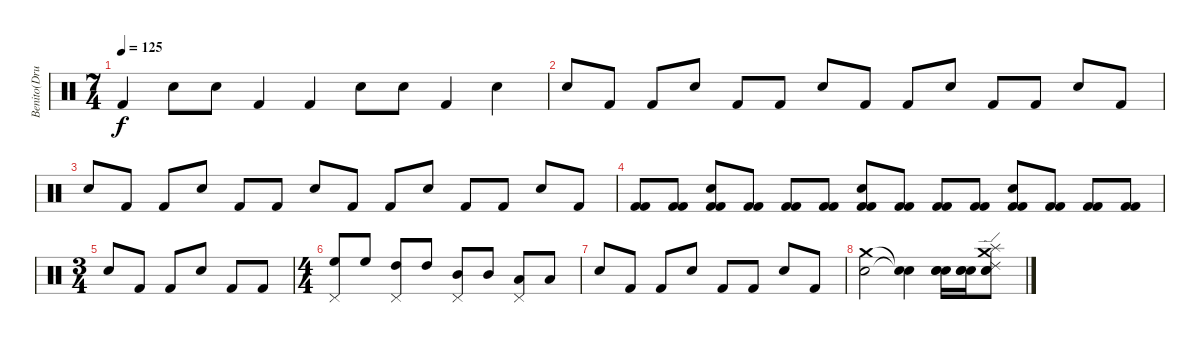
\track ("Benito(Drums)" "Benito(Dru") {instrument percussion}
\staff {score}
\articulation defaults
\ts (7 4)
\tempo 125
\clef neutral
\ks c "Kick (hit) 2".4{dy f volume 8} "Electric Snare (hit)".8 "Electric Snare (hit)".8 "Kick (hit) 2".4 "Kick (hit) 2".4 "Electric Snare (hit)".8 "Electric Snare (hit)".8 "Kick (hit) 2".4 "Electric Snare (hit)".4
|
"Electric Snare (hit)".8 "Kick (hit) 2".8 "Kick (hit) 2".8 "Electric Snare (hit)".8 "Kick (hit) 2".8 "Kick (hit) 2".8 "Electric Snare (hit)".8 "Kick (hit) 2".8 "Kick (hit) 2".8 "Electric Snare (hit)".8 "Kick (hit) 2".8 "Kick (hit) 2".8 "Electric Snare (hit)".8 "Kick (hit) 2".8 |
"Electric Snare (hit)".8 "Kick (hit) 2".8 "Kick (hit) 2".8 "Electric Snare (hit)".8 "Kick (hit) 2".8 "Kick (hit) 2".8 "Electric Snare (hit)".8 "Kick (hit) 2".8 "Kick (hit) 2".8 "Electric Snare (hit)".8 "Kick (hit) 2".8 "Kick (hit) 2".8 "Electric Snare (hit)".8 "Kick (hit) 2".8 |
("Kick (hit) 2" "Kick (hit) 2").8 ("Kick (hit) 2" "Kick (hit) 2").8 ("Kick (hit) 2" "Kick (hit) 2" "Electric Snare (hit)").8 ("Kick (hit) 2" "Kick (hit) 2").8 ("Kick (hit) 2" "Kick (hit) 2").8 ("Kick (hit) 2" "Kick (hit) 2").8 ("Kick (hit) 2" "Kick (hit) 2" "Electric Snare (hit)").8 ("Kick (hit) 2" "Kick (hit) 2").8 ("Kick (hit) 2" "Kick (hit) 2").8 ("Kick (hit) 2" "Kick (hit) 2").8 ("Kick (hit) 2" "Kick (hit) 2" "Electric Snare (hit)").8 ("Kick (hit) 2" "Kick (hit) 2").8 ("Kick (hit) 2" "Kick (hit) 2").8 ("Kick (hit) 2" "Kick (hit) 2").8 |
\ts (3 4)
"Electric Snare (hit)".8 "Kick (hit) 2".8 "Kick (hit) 2".8 "Electric Snare (hit)".8 "Kick (hit) 2".8 "Kick (hit) 2".8 |
\ts (4 4)
("High Floor Tom (hit)" "Pedal Hi-Hat (hit)").8 "High Floor Tom (hit)".8 ("High Tom (hit)" "Pedal Hi-Hat (hit)").8 "High Tom (hit)".8 ("Mid Tom (hit)" "Pedal Hi-Hat (hit)").8 "Mid Tom (hit)".8 ("Low Tom (hit)" "Pedal Hi-Hat (hit)").8 "Low Tom (hit)".8 |
"Electric Snare (hit)".8 "Kick (hit) 2".8 "Kick (hit) 2".8 "Electric Snare (hit)".8 "Kick (hit) 2".8 "Kick (hit) 2".8 "Electric Snare (hit)".8 "Kick (hit) 2".8 |
("Crash medium (hit)" "Electric Snare (hit)").2 ("Snare (hit)"{t} "Snare (hit)"{t}).4 ("Electric Snare (hit)" "Electric Snare (hit)" "Electric Snare (hit)").16 ("Electric Snare (hit)" "Electric Snare (hit)" "Electric Snare (hit)").16 ("Ride (edge) 2" "Electric Snare (hit)" "Splash (hit)" "Crash medium (hit)" "Electric Snare (hit)").8
